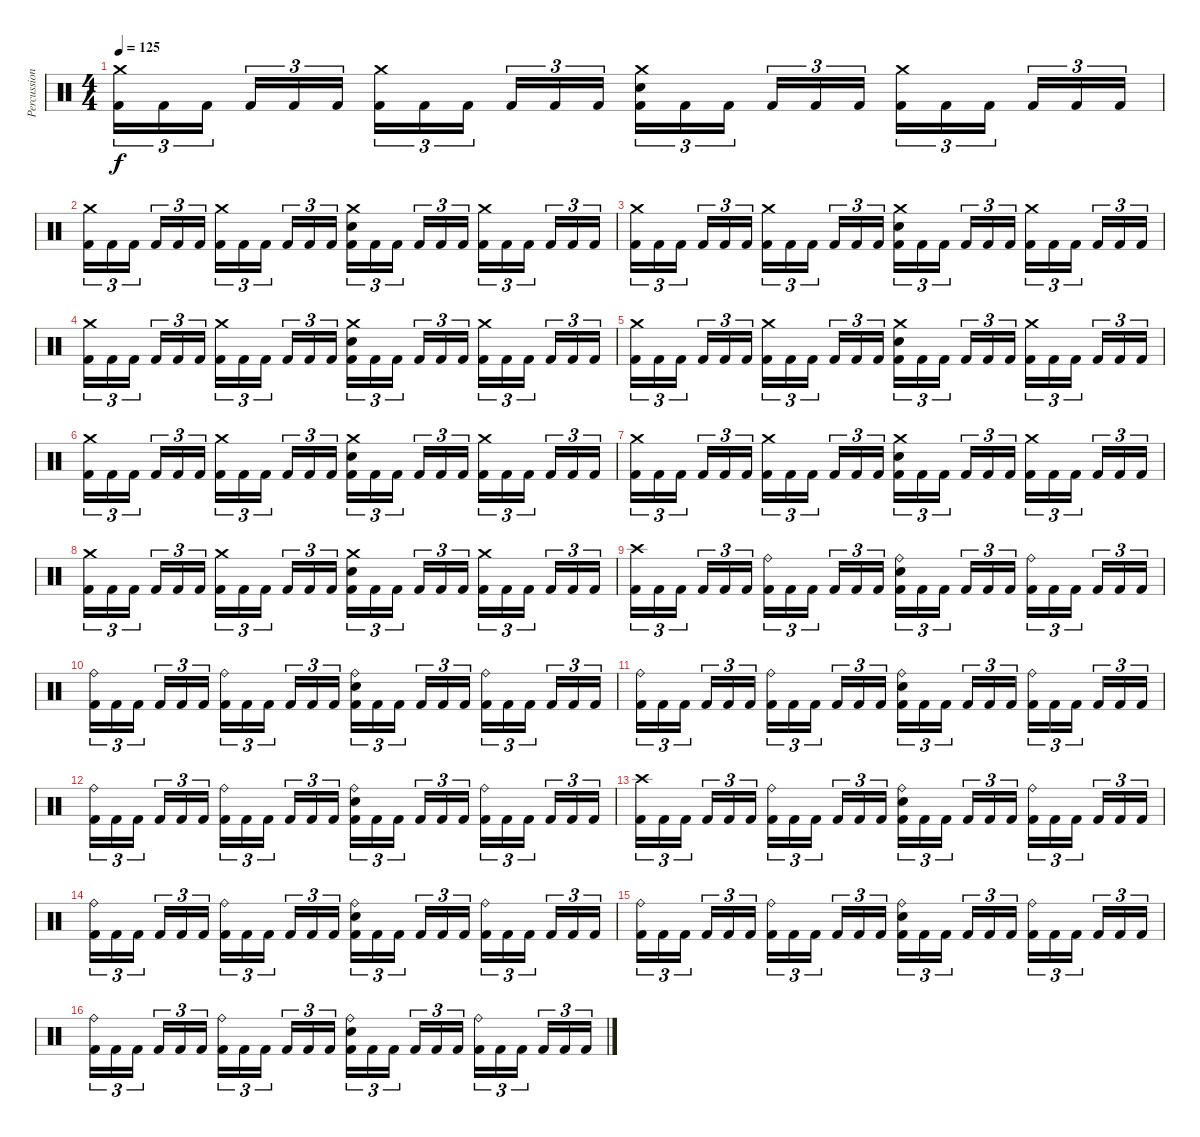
\track ("Percussion" "Percussion") {instrument percussion}
\staff {score}
\articulation defaults
\ts (4 4)
\tempo 125
\clef neutral
\ks c
("Crash medium (hit)" "Kick (hit) 2").16{tu (3 2) dy f} "Kick (hit) 2".16{tu (3 2)} "Kick (hit) 2".16{tu (3 2)} "Kick (hit) 2".16{tu (3 2)} "Kick (hit) 2".16{tu (3 2)} "Kick (hit) 2".16{tu (3 2)} ("Crash medium (hit)" "Kick (hit) 2").16{tu (3 2)} "Kick (hit) 2".16{tu (3 2)} "Kick (hit) 2".16{tu (3 2)} "Kick (hit) 2".16{tu (3 2)} "Kick (hit) 2".16{tu (3 2)} "Kick (hit) 2".16{tu (3 2)} ("Crash medium (hit)" "Electric Snare (hit)" "Kick (hit) 2").16{tu (3 2)} "Kick (hit) 2".16{tu (3 2)} "Kick (hit) 2".16{tu (3 2)} "Kick (hit) 2".16{tu (3 2)} "Kick (hit) 2".16{tu (3 2)} "Kick (hit) 2".16{tu (3 2)} ("Crash medium (hit)" "Kick (hit) 2").16{tu (3 2)} "Kick (hit) 2".16{tu (3 2)} "Kick (hit) 2".16{tu (3 2)} "Kick (hit) 2".16{tu (3 2)} "Kick (hit) 2".16{tu (3 2)} "Kick (hit) 2".16{tu (3 2)} |
("Crash medium (hit)" "Kick (hit) 2").16{tu (3 2)} "Kick (hit) 2".16{tu (3 2)} "Kick (hit) 2".16{tu (3 2)} "Kick (hit) 2".16{tu (3 2)} "Kick (hit) 2".16{tu (3 2)} "Kick (hit) 2".16{tu (3 2)} ("Crash medium (hit)" "Kick (hit) 2").16{tu (3 2)} "Kick (hit) 2".16{tu (3 2)} "Kick (hit) 2".16{tu (3 2)} "Kick (hit) 2".16{tu (3 2)} "Kick (hit) 2".16{tu (3 2)} "Kick (hit) 2".16{tu (3 2)} ("Crash medium (hit)" "Electric Snare (hit)" "Kick (hit) 2").16{tu (3 2)} "Kick (hit) 2".16{tu (3 2)} "Kick (hit) 2".16{tu (3 2)} "Kick (hit) 2".16{tu (3 2)} "Kick (hit) 2".16{tu (3 2)} "Kick (hit) 2".16{tu (3 2)} ("Crash medium (hit)" "Kick (hit) 2").16{tu (3 2)} "Kick (hit) 2".16{tu (3 2)} "Kick (hit) 2".16{tu (3 2)} "Kick (hit) 2".16{tu (3 2)} "Kick (hit) 2".16{tu (3 2)} "Kick (hit) 2".16{tu (3 2)} |
("Crash medium (hit)" "Kick (hit) 2").16{tu (3 2)} "Kick (hit) 2".16{tu (3 2)} "Kick (hit) 2".16{tu (3 2)} "Kick (hit) 2".16{tu (3 2)} "Kick (hit) 2".16{tu (3 2)} "Kick (hit) 2".16{tu (3 2)} ("Crash medium (hit)" "Kick (hit) 2").16{tu (3 2)} "Kick (hit) 2".16{tu (3 2)} "Kick (hit) 2".16{tu (3 2)} "Kick (hit) 2".16{tu (3 2)} "Kick (hit) 2".16{tu (3 2)} "Kick (hit) 2".16{tu (3 2)} ("Crash medium (hit)" "Electric Snare (hit)" "Kick (hit) 2").16{tu (3 2)} "Kick (hit) 2".16{tu (3 2)} "Kick (hit) 2".16{tu (3 2)} "Kick (hit) 2".16{tu (3 2)} "Kick (hit) 2".16{tu (3 2)} "Kick (hit) 2".16{tu (3 2)} ("Crash medium (hit)" "Kick (hit) 2").16{tu (3 2)} "Kick (hit) 2".16{tu (3 2)} "Kick (hit) 2".16{tu (3 2)} "Kick (hit) 2".16{tu (3 2)} "Kick (hit) 2".16{tu (3 2)} "Kick (hit) 2".16{tu (3 2)} |
("Crash medium (hit)" "Kick (hit) 2").16{tu (3 2)} "Kick (hit) 2".16{tu (3 2)} "Kick (hit) 2".16{tu (3 2)} "Kick (hit) 2".16{tu (3 2)} "Kick (hit) 2".16{tu (3 2)} "Kick (hit) 2".16{tu (3 2)} ("Crash medium (hit)" "Kick (hit) 2").16{tu (3 2)} "Kick (hit) 2".16{tu (3 2)} "Kick (hit) 2".16{tu (3 2)} "Kick (hit) 2".16{tu (3 2)} "Kick (hit) 2".16{tu (3 2)} "Kick (hit) 2".16{tu (3 2)} ("Crash medium (hit)" "Electric Snare (hit)" "Kick (hit) 2").16{tu (3 2)} "Kick (hit) 2".16{tu (3 2)} "Kick (hit) 2".16{tu (3 2)} "Kick (hit) 2".16{tu (3 2)} "Kick (hit) 2".16{tu (3 2)} "Kick (hit) 2".16{tu (3 2)} ("Crash medium (hit)" "Kick (hit) 2").16{tu (3 2)} "Kick (hit) 2".16{tu (3 2)} "Kick (hit) 2".16{tu (3 2)} "Kick (hit) 2".16{tu (3 2)} "Kick (hit) 2".16{tu (3 2)} "Kick (hit) 2".16{tu (3 2)} |
("Crash medium (hit)" "Kick (hit) 2").16{tu (3 2)} "Kick (hit) 2".16{tu (3 2)} "Kick (hit) 2".16{tu (3 2)} "Kick (hit) 2".16{tu (3 2)} "Kick (hit) 2".16{tu (3 2)} "Kick (hit) 2".16{tu (3 2)} ("Crash medium (hit)" "Kick (hit) 2").16{tu (3 2)} "Kick (hit) 2".16{tu (3 2)} "Kick (hit) 2".16{tu (3 2)} "Kick (hit) 2".16{tu (3 2)} "Kick (hit) 2".16{tu (3 2)} "Kick (hit) 2".16{tu (3 2)} ("Crash medium (hit)" "Electric Snare (hit)" "Kick (hit) 2").16{tu (3 2)} "Kick (hit) 2".16{tu (3 2)} "Kick (hit) 2".16{tu (3 2)} "Kick (hit) 2".16{tu (3 2)} "Kick (hit) 2".16{tu (3 2)} "Kick (hit) 2".16{tu (3 2)} ("Crash medium (hit)" "Kick (hit) 2").16{tu (3 2)} "Kick (hit) 2".16{tu (3 2)} "Kick (hit) 2".16{tu (3 2)} "Kick (hit) 2".16{tu (3 2)} "Kick (hit) 2".16{tu (3 2)} "Kick (hit) 2".16{tu (3 2)} |
("Crash medium (hit)" "Kick (hit) 2").16{tu (3 2)} "Kick (hit) 2".16{tu (3 2)} "Kick (hit) 2".16{tu (3 2)} "Kick (hit) 2".16{tu (3 2)} "Kick (hit) 2".16{tu (3 2)} "Kick (hit) 2".16{tu (3 2)} ("Crash medium (hit)" "Kick (hit) 2").16{tu (3 2)} "Kick (hit) 2".16{tu (3 2)} "Kick (hit) 2".16{tu (3 2)} "Kick (hit) 2".16{tu (3 2)} "Kick (hit) 2".16{tu (3 2)} "Kick (hit) 2".16{tu (3 2)} ("Crash medium (hit)" "Electric Snare (hit)" "Kick (hit) 2").16{tu (3 2)} "Kick (hit) 2".16{tu (3 2)} "Kick (hit) 2".16{tu (3 2)} "Kick (hit) 2".16{tu (3 2)} "Kick (hit) 2".16{tu (3 2)} "Kick (hit) 2".16{tu (3 2)} ("Crash medium (hit)" "Kick (hit) 2").16{tu (3 2)} "Kick (hit) 2".16{tu (3 2)} "Kick (hit) 2".16{tu (3 2)} "Kick (hit) 2".16{tu (3 2)} "Kick (hit) 2".16{tu (3 2)} "Kick (hit) 2".16{tu (3 2)} |
("Crash medium (hit)" "Kick (hit) 2").16{tu (3 2)} "Kick (hit) 2".16{tu (3 2)} "Kick (hit) 2".16{tu (3 2)} "Kick (hit) 2".16{tu (3 2)} "Kick (hit) 2".16{tu (3 2)} "Kick (hit) 2".16{tu (3 2)} ("Crash medium (hit)" "Kick (hit) 2").16{tu (3 2)} "Kick (hit) 2".16{tu (3 2)} "Kick (hit) 2".16{tu (3 2)} "Kick (hit) 2".16{tu (3 2)} "Kick (hit) 2".16{tu (3 2)} "Kick (hit) 2".16{tu (3 2)} ("Crash medium (hit)" "Electric Snare (hit)" "Kick (hit) 2").16{tu (3 2)} "Kick (hit) 2".16{tu (3 2)} "Kick (hit) 2".16{tu (3 2)} "Kick (hit) 2".16{tu (3 2)} "Kick (hit) 2".16{tu (3 2)} "Kick (hit) 2".16{tu (3 2)} ("Crash medium (hit)" "Kick (hit) 2").16{tu (3 2)} "Kick (hit) 2".16{tu (3 2)} "Kick (hit) 2".16{tu (3 2)} "Kick (hit) 2".16{tu (3 2)} "Kick (hit) 2".16{tu (3 2)} "Kick (hit) 2".16{tu (3 2)} |
("Crash medium (hit)" "Kick (hit) 2").16{tu (3 2)} "Kick (hit) 2".16{tu (3 2)} "Kick (hit) 2".16{tu (3 2)} "Kick (hit) 2".16{tu (3 2)} "Kick (hit) 2".16{tu (3 2)} "Kick (hit) 2".16{tu (3 2)} ("Crash medium (hit)" "Kick (hit) 2").16{tu (3 2)} "Kick (hit) 2".16{tu (3 2)} "Kick (hit) 2".16{tu (3 2)} "Kick (hit) 2".16{tu (3 2)} "Kick (hit) 2".16{tu (3 2)} "Kick (hit) 2".16{tu (3 2)} ("Crash medium (hit)" "Electric Snare (hit)" "Kick (hit) 2").16{tu (3 2)} "Kick (hit) 2".16{tu (3 2)} "Kick (hit) 2".16{tu (3 2)} "Kick (hit) 2".16{tu (3 2)} "Kick (hit) 2".16{tu (3 2)} "Kick (hit) 2".16{tu (3 2)} ("Crash medium (hit)" "Kick (hit) 2").16{tu (3 2)} "Kick (hit) 2".16{tu (3 2)} "Kick (hit) 2".16{tu (3 2)} "Kick (hit) 2".16{tu (3 2)} "Kick (hit) 2".16{tu (3 2)} "Kick (hit) 2".16{tu (3 2)} |
("Crash high (hit)" "Kick (hit) 2").16{tu (3 2)} "Kick (hit) 2".16{tu (3 2)} "Kick (hit) 2".16{tu (3 2)} "Kick (hit) 2".16{tu (3 2)} "Kick (hit) 2".16{tu (3 2)} "Kick (hit) 2".16{tu (3 2)} ("Ride (bell)" "Kick (hit) 2").16{tu (3 2)} "Kick (hit) 2".16{tu (3 2)} "Kick (hit) 2".16{tu (3 2)} "Kick (hit) 2".16{tu (3 2)} "Kick (hit) 2".16{tu (3 2)} "Kick (hit) 2".16{tu (3 2)} ("Ride (bell)" "Electric Snare (hit)" "Kick (hit) 2").16{tu (3 2)} "Kick (hit) 2".16{tu (3 2)} "Kick (hit) 2".16{tu (3 2)} "Kick (hit) 2".16{tu (3 2)} "Kick (hit) 2".16{tu (3 2)} "Kick (hit) 2".16{tu (3 2)} ("Ride (bell)" "Kick (hit) 2").16{tu (3 2)} "Kick (hit) 2".16{tu (3 2)} "Kick (hit) 2".16{tu (3 2)} "Kick (hit) 2".16{tu (3 2)} "Kick (hit) 2".16{tu (3 2)} "Kick (hit) 2".16{tu (3 2)} |
("Ride (bell)" "Kick (hit) 2").16{tu (3 2)} "Kick (hit) 2".16{tu (3 2)} "Kick (hit) 2".16{tu (3 2)} "Kick (hit) 2".16{tu (3 2)} "Kick (hit) 2".16{tu (3 2)} "Kick (hit) 2".16{tu (3 2)} ("Ride (bell)" "Kick (hit) 2").16{tu (3 2)} "Kick (hit) 2".16{tu (3 2)} "Kick (hit) 2".16{tu (3 2)} "Kick (hit) 2".16{tu (3 2)} "Kick (hit) 2".16{tu (3 2)} "Kick (hit) 2".16{tu (3 2)} ("Ride (bell)" "Electric Snare (hit)" "Kick (hit) 2").16{tu (3 2)} "Kick (hit) 2".16{tu (3 2)} "Kick (hit) 2".16{tu (3 2)} "Kick (hit) 2".16{tu (3 2)} "Kick (hit) 2".16{tu (3 2)} "Kick (hit) 2".16{tu (3 2)} ("Ride (bell)" "Kick (hit) 2").16{tu (3 2)} "Kick (hit) 2".16{tu (3 2)} "Kick (hit) 2".16{tu (3 2)} "Kick (hit) 2".16{tu (3 2)} "Kick (hit) 2".16{tu (3 2)} "Kick (hit) 2".16{tu (3 2)} |
("Ride (bell)" "Kick (hit) 2").16{tu (3 2)} "Kick (hit) 2".16{tu (3 2)} "Kick (hit) 2".16{tu (3 2)} "Kick (hit) 2".16{tu (3 2)} "Kick (hit) 2".16{tu (3 2)} "Kick (hit) 2".16{tu (3 2)} ("Ride (bell)" "Kick (hit) 2").16{tu (3 2)} "Kick (hit) 2".16{tu (3 2)} "Kick (hit) 2".16{tu (3 2)} "Kick (hit) 2".16{tu (3 2)} "Kick (hit) 2".16{tu (3 2)} "Kick (hit) 2".16{tu (3 2)} ("Ride (bell)" "Electric Snare (hit)" "Kick (hit) 2").16{tu (3 2)} "Kick (hit) 2".16{tu (3 2)} "Kick (hit) 2".16{tu (3 2)} "Kick (hit) 2".16{tu (3 2)} "Kick (hit) 2".16{tu (3 2)} "Kick (hit) 2".16{tu (3 2)} ("Ride (bell)" "Kick (hit) 2").16{tu (3 2)} "Kick (hit) 2".16{tu (3 2)} "Kick (hit) 2".16{tu (3 2)} "Kick (hit) 2".16{tu (3 2)} "Kick (hit) 2".16{tu (3 2)} "Kick (hit) 2".16{tu (3 2)} |
("Ride (bell)" "Kick (hit) 2").16{tu (3 2)} "Kick (hit) 2".16{tu (3 2)} "Kick (hit) 2".16{tu (3 2)} "Kick (hit) 2".16{tu (3 2)} "Kick (hit) 2".16{tu (3 2)} "Kick (hit) 2".16{tu (3 2)} ("Ride (bell)" "Kick (hit) 2").16{tu (3 2)} "Kick (hit) 2".16{tu (3 2)} "Kick (hit) 2".16{tu (3 2)} "Kick (hit) 2".16{tu (3 2)} "Kick (hit) 2".16{tu (3 2)} "Kick (hit) 2".16{tu (3 2)} ("Ride (bell)" "Electric Snare (hit)" "Kick (hit) 2").16{tu (3 2)} "Kick (hit) 2".16{tu (3 2)} "Kick (hit) 2".16{tu (3 2)} "Kick (hit) 2".16{tu (3 2)} "Kick (hit) 2".16{tu (3 2)} "Kick (hit) 2".16{tu (3 2)} ("Ride (bell)" "Kick (hit) 2").16{tu (3 2)} "Kick (hit) 2".16{tu (3 2)} "Kick (hit) 2".16{tu (3 2)} "Kick (hit) 2".16{tu (3 2)} "Kick (hit) 2".16{tu (3 2)} "Kick (hit) 2".16{tu (3 2)} |
("Crash high (hit)" "Kick (hit) 2").16{tu (3 2)} "Kick (hit) 2".16{tu (3 2)} "Kick (hit) 2".16{tu (3 2)} "Kick (hit) 2".16{tu (3 2)} "Kick (hit) 2".16{tu (3 2)} "Kick (hit) 2".16{tu (3 2)} ("Ride (bell)" "Kick (hit) 2").16{tu (3 2)} "Kick (hit) 2".16{tu (3 2)} "Kick (hit) 2".16{tu (3 2)} "Kick (hit) 2".16{tu (3 2)} "Kick (hit) 2".16{tu (3 2)} "Kick (hit) 2".16{tu (3 2)} ("Ride (bell)" "Electric Snare (hit)" "Kick (hit) 2").16{tu (3 2)} "Kick (hit) 2".16{tu (3 2)} "Kick (hit) 2".16{tu (3 2)} "Kick (hit) 2".16{tu (3 2)} "Kick (hit) 2".16{tu (3 2)} "Kick (hit) 2".16{tu (3 2)} ("Ride (bell)" "Kick (hit) 2").16{tu (3 2)} "Kick (hit) 2".16{tu (3 2)} "Kick (hit) 2".16{tu (3 2)} "Kick (hit) 2".16{tu (3 2)} "Kick (hit) 2".16{tu (3 2)} "Kick (hit) 2".16{tu (3 2)} |
("Ride (bell)" "Kick (hit) 2").16{tu (3 2)} "Kick (hit) 2".16{tu (3 2)} "Kick (hit) 2".16{tu (3 2)} "Kick (hit) 2".16{tu (3 2)} "Kick (hit) 2".16{tu (3 2)} "Kick (hit) 2".16{tu (3 2)} ("Ride (bell)" "Kick (hit) 2").16{tu (3 2)} "Kick (hit) 2".16{tu (3 2)} "Kick (hit) 2".16{tu (3 2)} "Kick (hit) 2".16{tu (3 2)} "Kick (hit) 2".16{tu (3 2)} "Kick (hit) 2".16{tu (3 2)} ("Ride (bell)" "Electric Snare (hit)" "Kick (hit) 2").16{tu (3 2)} "Kick (hit) 2".16{tu (3 2)} "Kick (hit) 2".16{tu (3 2)} "Kick (hit) 2".16{tu (3 2)} "Kick (hit) 2".16{tu (3 2)} "Kick (hit) 2".16{tu (3 2)} ("Ride (bell)" "Kick (hit) 2").16{tu (3 2)} "Kick (hit) 2".16{tu (3 2)} "Kick (hit) 2".16{tu (3 2)} "Kick (hit) 2".16{tu (3 2)} "Kick (hit) 2".16{tu (3 2)} "Kick (hit) 2".16{tu (3 2)} |
("Ride (bell)" "Kick (hit) 2").16{tu (3 2)} "Kick (hit) 2".16{tu (3 2)} "Kick (hit) 2".16{tu (3 2)} "Kick (hit) 2".16{tu (3 2)} "Kick (hit) 2".16{tu (3 2)} "Kick (hit) 2".16{tu (3 2)} ("Ride (bell)" "Kick (hit) 2").16{tu (3 2)} "Kick (hit) 2".16{tu (3 2)} "Kick (hit) 2".16{tu (3 2)} "Kick (hit) 2".16{tu (3 2)} "Kick (hit) 2".16{tu (3 2)} "Kick (hit) 2".16{tu (3 2)} ("Ride (bell)" "Electric Snare (hit)" "Kick (hit) 2").16{tu (3 2)} "Kick (hit) 2".16{tu (3 2)} "Kick (hit) 2".16{tu (3 2)} "Kick (hit) 2".16{tu (3 2)} "Kick (hit) 2".16{tu (3 2)} "Kick (hit) 2".16{tu (3 2)} ("Ride (bell)" "Kick (hit) 2").16{tu (3 2)} "Kick (hit) 2".16{tu (3 2)} "Kick (hit) 2".16{tu (3 2)} "Kick (hit) 2".16{tu (3 2)} "Kick (hit) 2".16{tu (3 2)} "Kick (hit) 2".16{tu (3 2)} |
("Ride (bell)" "Kick (hit) 2").16{tu (3 2)} "Kick (hit) 2".16{tu (3 2)} "Kick (hit) 2".16{tu (3 2)} "Kick (hit) 2".16{tu (3 2)} "Kick (hit) 2".16{tu (3 2)} "Kick (hit) 2".16{tu (3 2)} ("Ride (bell)" "Kick (hit) 2").16{tu (3 2)} "Kick (hit) 2".16{tu (3 2)} "Kick (hit) 2".16{tu (3 2)} "Kick (hit) 2".16{tu (3 2)} "Kick (hit) 2".16{tu (3 2)} "Kick (hit) 2".16{tu (3 2)} ("Ride (bell)" "Electric Snare (hit)" "Kick (hit) 2").16{tu (3 2)} "Kick (hit) 2".16{tu (3 2)} "Kick (hit) 2".16{tu (3 2)} "Kick (hit) 2".16{tu (3 2)} "Kick (hit) 2".16{tu (3 2)} "Kick (hit) 2".16{tu (3 2)} ("Ride (bell)" "Kick (hit) 2").16{tu (3 2)} "Kick (hit) 2".16{tu (3 2)} "Kick (hit) 2".16{tu (3 2)} "Kick (hit) 2".16{tu (3 2)} "Kick (hit) 2".16{tu (3 2)} "Kick (hit) 2".16{tu (3 2)}
